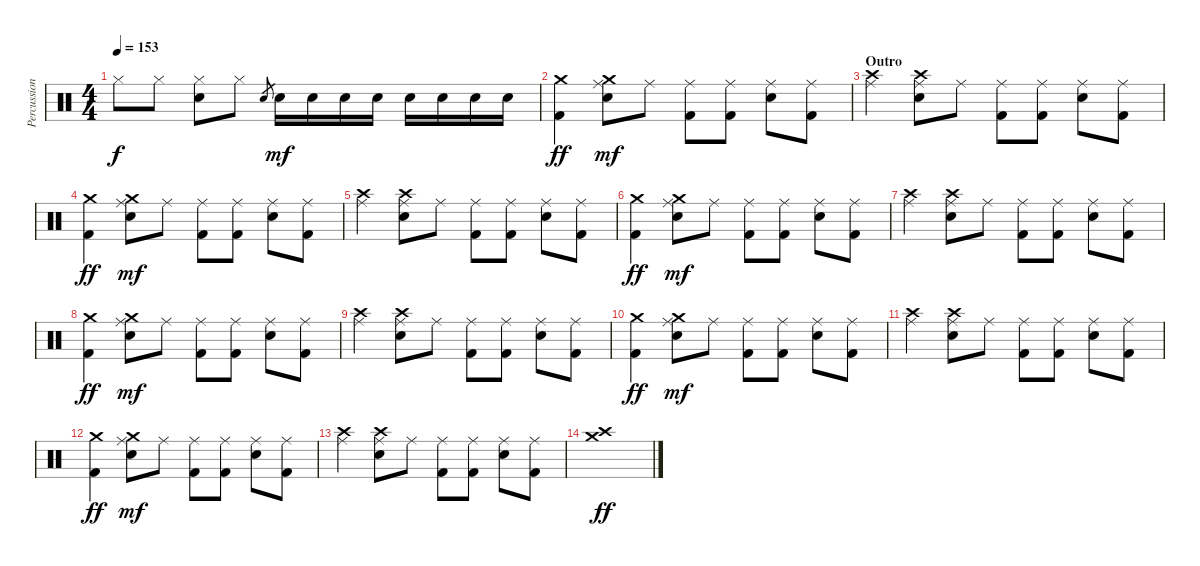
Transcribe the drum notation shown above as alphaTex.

\track ("Percussion" "Percussion") {instrument percussion}
\staff {score}
\articulation defaults
\ts (4 4)
\tempo 153
\clef neutral
\ks c "Hi-Hat (closed)".8{dy f} "Hi-Hat (closed)".8
("Hi-Hat (closed)" "Electric Snare (hit)").8 "Hi-Hat (closed)".8 "Electric Snare (hit)".8{gr} "Electric Snare (hit)".16{dy mf} "Electric Snare (hit)".16 "Electric Snare (hit)".16 "Electric Snare (hit)".16 "Snare (hit) 2".16 "Snare (hit) 2".16 "Snare (hit) 2".16 "Snare (hit) 2".16 |
("Crash medium (hit)" "Kick (hit) 2").4{dy ff} ("Crash medium (hit)" "Ride (middle)" "Electric Snare (hit)").8{dy mf} "Ride (middle)".8 ("Ride (middle)" "Kick (hit) 2").8 ("Ride (middle)" "Kick (hit) 2").8 ("Ride (middle)" "Electric Snare (hit)").8 ("Ride (middle)" "Kick (hit) 2").8 |
\section ("" "Outro")
("Crash high (hit)" "Ride (middle)").4 ("Crash high (hit)" "Ride (middle)" "Electric Snare (hit)").8 "Ride (middle)".8 ("Ride (middle)" "Kick (hit) 2").8 ("Ride (middle)" "Kick (hit) 2").8 ("Ride (middle)" "Electric Snare (hit)").8 ("Ride (middle)" "Kick (hit) 2").8 |
("Crash medium (hit)" "Kick (hit) 2").4{dy ff} ("Crash medium (hit)" "Ride (middle)" "Electric Snare (hit)").8{dy mf} "Ride (middle)".8 ("Ride (middle)" "Kick (hit) 2").8 ("Ride (middle)" "Kick (hit) 2").8 ("Ride (middle)" "Electric Snare (hit)").8 ("Ride (middle)" "Kick (hit) 2").8 |
("Crash high (hit)" "Ride (middle)").4 ("Crash high (hit)" "Ride (middle)" "Electric Snare (hit)").8 "Ride (middle)".8 ("Ride (middle)" "Kick (hit) 2").8 ("Ride (middle)" "Kick (hit) 2").8 ("Ride (middle)" "Electric Snare (hit)").8 ("Ride (middle)" "Kick (hit) 2").8 |
("Crash medium (hit)" "Kick (hit) 2").4{dy ff} ("Crash medium (hit)" "Ride (middle)" "Electric Snare (hit)").8{dy mf} "Ride (middle)".8 ("Ride (middle)" "Kick (hit) 2").8 ("Ride (middle)" "Kick (hit) 2").8 ("Ride (middle)" "Electric Snare (hit)").8 ("Ride (middle)" "Kick (hit) 2").8 |
("Crash high (hit)" "Ride (middle)").4 ("Crash high (hit)" "Ride (middle)" "Electric Snare (hit)").8 "Ride (middle)".8 ("Ride (middle)" "Kick (hit) 2").8 ("Ride (middle)" "Kick (hit) 2").8 ("Ride (middle)" "Electric Snare (hit)").8 ("Ride (middle)" "Kick (hit) 2").8 |
("Crash medium (hit)" "Kick (hit) 2").4{dy ff} ("Crash medium (hit)" "Ride (middle)" "Electric Snare (hit)").8{dy mf} "Ride (middle)".8 ("Ride (middle)" "Kick (hit) 2").8 ("Ride (middle)" "Kick (hit) 2").8 ("Ride (middle)" "Electric Snare (hit)").8 ("Ride (middle)" "Kick (hit) 2").8 |
("Crash high (hit)" "Ride (middle)").4 ("Crash high (hit)" "Ride (middle)" "Electric Snare (hit)").8 "Ride (middle)".8 ("Ride (middle)" "Kick (hit) 2").8 ("Ride (middle)" "Kick (hit) 2").8 ("Ride (middle)" "Electric Snare (hit)").8 ("Ride (middle)" "Kick (hit) 2").8 |
("Crash medium (hit)" "Kick (hit) 2").4{dy ff} ("Crash medium (hit)" "Ride (middle)" "Electric Snare (hit)").8{dy mf} "Ride (middle)".8 ("Ride (middle)" "Kick (hit) 2").8 ("Ride (middle)" "Kick (hit) 2").8 ("Ride (middle)" "Electric Snare (hit)").8 ("Ride (middle)" "Kick (hit) 2").8 |
("Crash high (hit)" "Ride (middle)").4 ("Crash high (hit)" "Ride (middle)" "Electric Snare (hit)").8 "Ride (middle)".8 ("Ride (middle)" "Kick (hit) 2").8 ("Ride (middle)" "Kick (hit) 2").8 ("Ride (middle)" "Electric Snare (hit)").8 ("Ride (middle)" "Kick (hit) 2").8 |
("Crash medium (hit)" "Kick (hit) 2").4{dy ff} ("Crash medium (hit)" "Ride (middle)" "Electric Snare (hit)").8{dy mf} "Ride (middle)".8 ("Ride (middle)" "Kick (hit) 2").8 ("Ride (middle)" "Kick (hit) 2").8 ("Ride (middle)" "Electric Snare (hit)").8 ("Ride (middle)" "Kick (hit) 2").8 |
("Crash high (hit)" "Ride (middle)").4 ("Crash high (hit)" "Ride (middle)" "Electric Snare (hit)").8 "Ride (middle)".8 ("Ride (middle)" "Kick (hit) 2").8 ("Ride (middle)" "Kick (hit) 2").8 ("Ride (middle)" "Electric Snare (hit)").8 ("Ride (middle)" "Kick (hit) 2").8 |
("Crash high (hit)" "Crash medium (hit)").1{dy ff}
